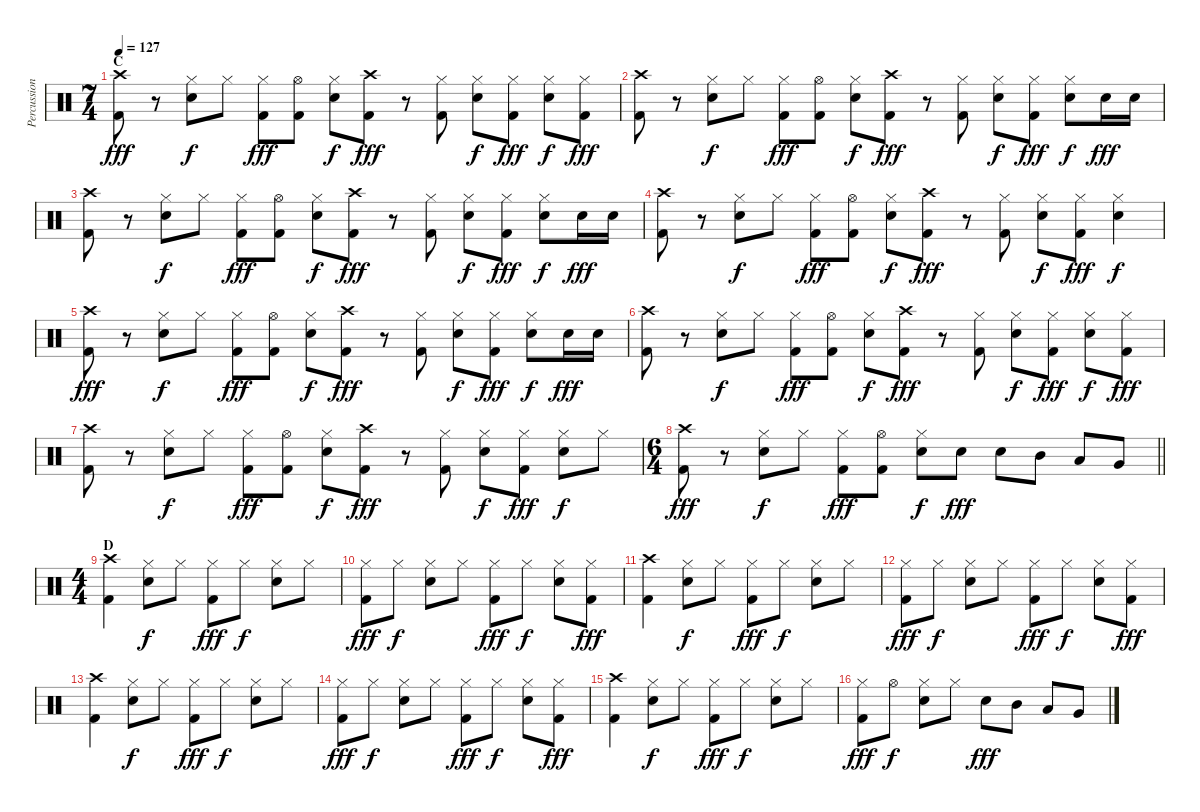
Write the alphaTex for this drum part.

\track ("Percussion" "Percussion") {instrument percussion}
\staff {score}
\articulation defaults
\ts (7 4)
\section ("" "C")
\tempo 127
\clef neutral
\ks c
("Crash high (hit)" "Kick (hit) 2").8{dy fff} r.8 ("Hi-Hat (closed)" "Electric Snare (hit)").8{dy f} "Hi-Hat (closed)".8 ("Hi-Hat (closed)" "Kick (hit) 2").8{dy fff} ("Hi-Hat (open)" "Kick (hit) 2").8 ("Hi-Hat (closed)" "Electric Snare (hit)").8{dy f} ("Crash high (hit)" "Kick (hit) 2").8{dy fff} r.8 ("Hi-Hat (closed)" "Kick (hit) 2").8 ("Hi-Hat (closed)" "Electric Snare (hit)").8{dy f} ("Hi-Hat (closed)" "Kick (hit) 2").8{dy fff} ("Hi-Hat (closed)" "Electric Snare (hit)").8{dy f} ("Hi-Hat (closed)" "Kick (hit) 2").8{dy fff} |
("Crash high (hit)" "Kick (hit) 2").8 r.8 ("Hi-Hat (closed)" "Electric Snare (hit)").8{dy f} "Hi-Hat (closed)".8 ("Hi-Hat (closed)" "Kick (hit) 2").8{dy fff} ("Hi-Hat (open)" "Kick (hit) 2").8 ("Hi-Hat (closed)" "Electric Snare (hit)").8{dy f} ("Crash high (hit)" "Kick (hit) 2").8{dy fff} r.8 ("Hi-Hat (closed)" "Kick (hit) 2").8 ("Hi-Hat (closed)" "Electric Snare (hit)").8{dy f} ("Hi-Hat (closed)" "Kick (hit) 2").8{dy fff} ("Hi-Hat (closed)" "Electric Snare (hit)").8{dy f} "Electric Snare (hit)".16{dy fff} "Electric Snare (hit)".16 |
("Crash high (hit)" "Kick (hit) 2").8 r.8 ("Hi-Hat (closed)" "Electric Snare (hit)").8{dy f} "Hi-Hat (closed)".8 ("Hi-Hat (closed)" "Kick (hit) 2").8{dy fff} ("Hi-Hat (open)" "Kick (hit) 2").8 ("Hi-Hat (closed)" "Electric Snare (hit)").8{dy f} ("Crash high (hit)" "Kick (hit) 2").8{dy fff} r.8 ("Hi-Hat (closed)" "Kick (hit) 2").8 ("Hi-Hat (closed)" "Electric Snare (hit)").8{dy f} ("Hi-Hat (closed)" "Kick (hit) 2").8{dy fff} ("Hi-Hat (closed)" "Electric Snare (hit)").8{dy f} "Electric Snare (hit)".16{dy fff} "Electric Snare (hit)".16 |
("Crash high (hit)" "Kick (hit) 2").8 r.8 ("Hi-Hat (closed)" "Electric Snare (hit)").8{dy f} "Hi-Hat (closed)".8 ("Hi-Hat (closed)" "Kick (hit) 2").8{dy fff} ("Hi-Hat (open)" "Kick (hit) 2").8 ("Hi-Hat (closed)" "Electric Snare (hit)").8{dy f} ("Crash high (hit)" "Kick (hit) 2").8{dy fff} r.8 ("Hi-Hat (closed)" "Kick (hit) 2").8 ("Hi-Hat (closed)" "Electric Snare (hit)").8{dy f} ("Hi-Hat (closed)" "Kick (hit) 2").8{dy fff} ("Hi-Hat (closed)" "Electric Snare (hit)").4{dy f} |
("Crash high (hit)" "Kick (hit) 2").8{dy fff} r.8 ("Hi-Hat (closed)" "Electric Snare (hit)").8{dy f} "Hi-Hat (closed)".8 ("Hi-Hat (closed)" "Kick (hit) 2").8{dy fff} ("Hi-Hat (open)" "Kick (hit) 2").8 ("Hi-Hat (closed)" "Electric Snare (hit)").8{dy f} ("Crash high (hit)" "Kick (hit) 2").8{dy fff} r.8 ("Hi-Hat (closed)" "Kick (hit) 2").8 ("Hi-Hat (closed)" "Electric Snare (hit)").8{dy f} ("Hi-Hat (closed)" "Kick (hit) 2").8{dy fff} ("Hi-Hat (closed)" "Electric Snare (hit)").8{dy f} "Electric Snare (hit)".16{dy fff} "Electric Snare (hit)".16 |
("Crash high (hit)" "Kick (hit) 2").8 r.8 ("Hi-Hat (closed)" "Electric Snare (hit)").8{dy f} "Hi-Hat (closed)".8 ("Hi-Hat (closed)" "Kick (hit) 2").8{dy fff} ("Hi-Hat (open)" "Kick (hit) 2").8 ("Hi-Hat (closed)" "Electric Snare (hit)").8{dy f} ("Crash high (hit)" "Kick (hit) 2").8{dy fff} r.8 ("Hi-Hat (closed)" "Kick (hit) 2").8 ("Hi-Hat (closed)" "Electric Snare (hit)").8{dy f} ("Hi-Hat (closed)" "Kick (hit) 2").8{dy fff} ("Hi-Hat (closed)" "Electric Snare (hit)").8{dy f} ("Hi-Hat (closed)" "Kick (hit) 2").8{dy fff} |
("Crash high (hit)" "Kick (hit) 2").8 r.8 ("Hi-Hat (closed)" "Electric Snare (hit)").8{dy f} "Hi-Hat (closed)".8 ("Hi-Hat (closed)" "Kick (hit) 2").8{dy fff} ("Hi-Hat (open)" "Kick (hit) 2").8 ("Hi-Hat (closed)" "Electric Snare (hit)").8{dy f} ("Crash high (hit)" "Kick (hit) 2").8{dy fff} r.8 ("Hi-Hat (closed)" "Kick (hit) 2").8 ("Hi-Hat (closed)" "Electric Snare (hit)").8{dy f} ("Hi-Hat (closed)" "Kick (hit) 2").8{dy fff} ("Hi-Hat (closed)" "Electric Snare (hit)").8{dy f} "Hi-Hat (closed)".8 |
\ts (6 4)
\barLineRight lightlight
("Crash high (hit)" "Kick (hit) 2").8{dy fff} r.8 ("Hi-Hat (closed)" "Electric Snare (hit)").8{dy f} "Hi-Hat (closed)".8 ("Hi-Hat (closed)" "Kick (hit) 2").8{dy fff} ("Hi-Hat (open)" "Kick (hit) 2").8 ("Hi-Hat (closed)" "Electric Snare (hit)").8{dy f} "Electric Snare (hit)".8{dy fff} "Electric Snare (hit)".8 "Mid Tom (hit)".8 "Low Tom (hit)".8 "Very Low Tom (hit)".8 |
\ts (4 4)
\section ("" "D")
("Crash high (hit)" "Kick (hit) 2").4 ("Hi-Hat (closed)" "Electric Snare (hit)").8{dy f} "Hi-Hat (closed)".8 ("Hi-Hat (closed)" "Kick (hit) 2").8{dy fff} "Hi-Hat (closed)".8{dy f} ("Hi-Hat (closed)" "Electric Snare (hit)").8 "Hi-Hat (closed)".8 |
("Hi-Hat (closed)" "Kick (hit) 2").8{dy fff} "Hi-Hat (closed)".8{dy f} ("Hi-Hat (closed)" "Electric Snare (hit)").8 "Hi-Hat (closed)".8 ("Hi-Hat (closed)" "Kick (hit) 2").8{dy fff} "Hi-Hat (closed)".8{dy f} ("Hi-Hat (closed)" "Electric Snare (hit)").8 ("Hi-Hat (closed)" "Kick (hit) 2").8{dy fff} |
("Crash high (hit)" "Kick (hit) 2").4 ("Hi-Hat (closed)" "Electric Snare (hit)").8{dy f} "Hi-Hat (closed)".8 ("Hi-Hat (closed)" "Kick (hit) 2").8{dy fff} "Hi-Hat (closed)".8{dy f} ("Hi-Hat (closed)" "Electric Snare (hit)").8 "Hi-Hat (closed)".8 |
("Hi-Hat (closed)" "Kick (hit) 2").8{dy fff} "Hi-Hat (closed)".8{dy f} ("Hi-Hat (closed)" "Electric Snare (hit)").8 "Hi-Hat (closed)".8 ("Hi-Hat (closed)" "Kick (hit) 2").8{dy fff} "Hi-Hat (closed)".8{dy f} ("Hi-Hat (closed)" "Electric Snare (hit)").8 ("Hi-Hat (closed)" "Kick (hit) 2").8{dy fff} |
("Crash high (hit)" "Kick (hit) 2").4 ("Hi-Hat (closed)" "Electric Snare (hit)").8{dy f} "Hi-Hat (closed)".8 ("Hi-Hat (closed)" "Kick (hit) 2").8{dy fff} "Hi-Hat (closed)".8{dy f} ("Hi-Hat (closed)" "Electric Snare (hit)").8 "Hi-Hat (closed)".8 |
("Hi-Hat (closed)" "Kick (hit) 2").8{dy fff} "Hi-Hat (closed)".8{dy f} ("Hi-Hat (closed)" "Electric Snare (hit)").8 "Hi-Hat (closed)".8 ("Hi-Hat (closed)" "Kick (hit) 2").8{dy fff} "Hi-Hat (closed)".8{dy f} ("Hi-Hat (closed)" "Electric Snare (hit)").8 ("Hi-Hat (closed)" "Kick (hit) 2").8{dy fff} |
("Crash high (hit)" "Kick (hit) 2").4 ("Hi-Hat (closed)" "Electric Snare (hit)").8{dy f} "Hi-Hat (closed)".8 ("Hi-Hat (closed)" "Kick (hit) 2").8{dy fff} "Hi-Hat (closed)".8{dy f} ("Hi-Hat (closed)" "Electric Snare (hit)").8 "Hi-Hat (closed)".8 |
("Hi-Hat (closed)" "Kick (hit) 2").8{dy fff} "Hi-Hat (open)".8{dy f} ("Hi-Hat (closed)" "Electric Snare (hit)").8 "Hi-Hat (closed)".8 "Electric Snare (hit)".8{dy fff} "Mid Tom (hit)".8 "Low Tom (hit)".8 "Very Low Tom (hit)".8
